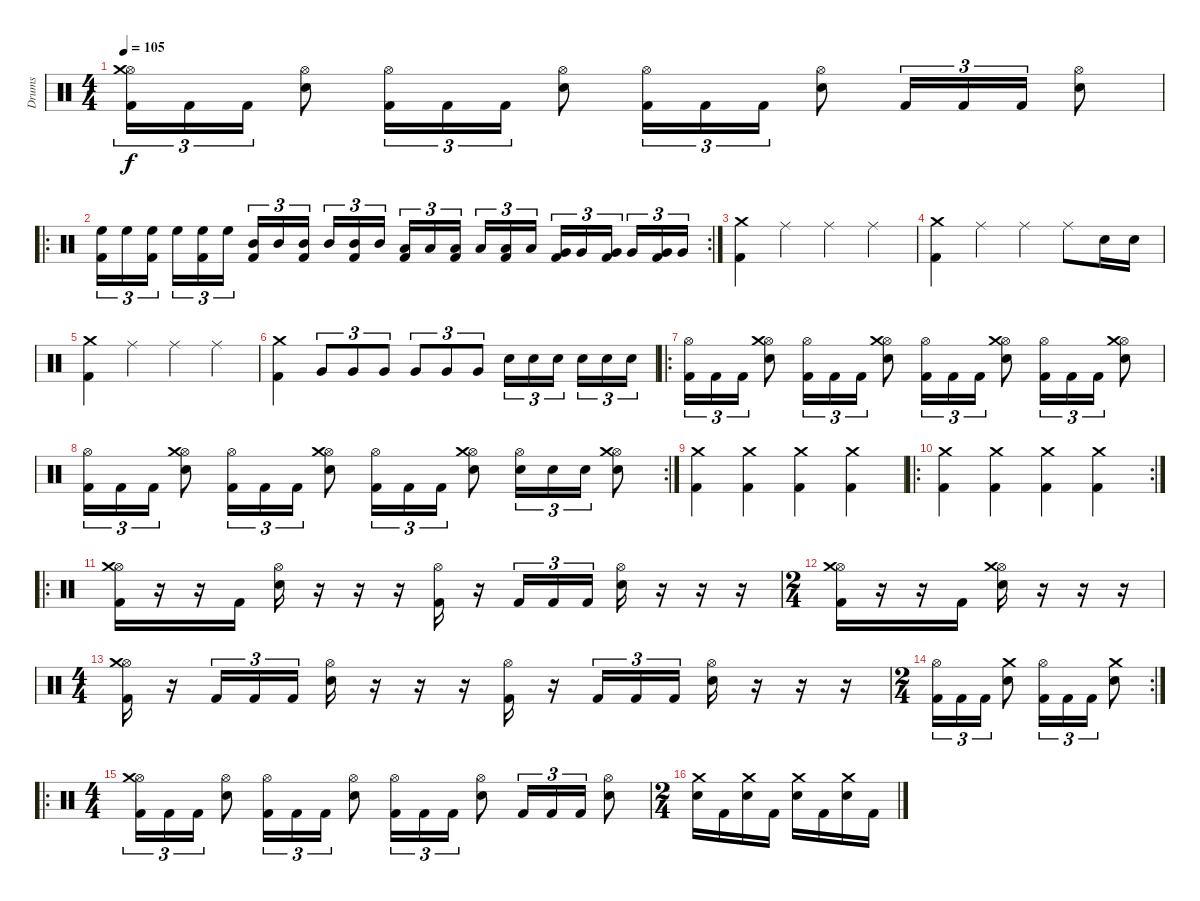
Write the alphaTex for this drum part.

\track ("Drums" "Drums") {instrument percussion}
\staff {score}
\articulation defaults
\ts (4 4)
\tempo 105
\clef neutral
\ks c
("Kick (hit) 2" "Hi-Hat (open)" "Crash medium (hit)").16{tu (3 2) dy f} "Kick (hit) 2".16{tu (3 2)} "Kick (hit) 2".16{tu (3 2)} ("Snare (hit) 2" "Hi-Hat (open)").8 ("Kick (hit) 2" "Hi-Hat (open)").16{tu (3 2)} "Kick (hit) 2".16{tu (3 2)} "Kick (hit) 2".16{tu (3 2)} ("Snare (hit) 2" "Hi-Hat (open)").8 ("Kick (hit) 2" "Hi-Hat (open)").16{tu (3 2)} "Kick (hit) 2".16{tu (3 2)} "Kick (hit) 2".16{tu (3 2)} ("Snare (hit) 2" "Hi-Hat (open)").8 "Kick (hit) 2".16{tu (3 2)} "Kick (hit) 2".16{tu (3 2)} "Kick (hit) 2".16{tu (3 2)} ("Snare (hit) 2" "Hi-Hat (open)").8 |
\ro
\rc 2
("High Floor Tom (hit)" "Kick (hit) 2").16{tu (3 2)} "High Floor Tom (hit)".16{tu (3 2)} ("High Floor Tom (hit)" "Kick (hit) 2").16{tu (3 2)} "High Floor Tom (hit)".16{tu (3 2)} ("High Floor Tom (hit)" "Kick (hit) 2").16{tu (3 2)} "High Floor Tom (hit)".16{tu (3 2)} ("Mid Tom (hit)" "Kick (hit) 2").16{tu (3 2)} "Mid Tom (hit)".16{tu (3 2)} ("Mid Tom (hit)" "Kick (hit) 2").16{tu (3 2)} "Mid Tom (hit)".16{tu (3 2)} ("Mid Tom (hit)" "Kick (hit) 2").16{tu (3 2)} "Mid Tom (hit)".16{tu (3 2)} ("Low Tom (hit)" "Kick (hit) 2").16{tu (3 2)} "Low Tom (hit)".16{tu (3 2)} ("Low Tom (hit)" "Kick (hit) 2").16{tu (3 2)} "Low Tom (hit)".16{tu (3 2)} ("Low Tom (hit)" "Kick (hit) 2").16{tu (3 2)} "Low Tom (hit)".16{tu (3 2)} ("Very Low Tom (hit)" "Kick (hit) 2").16{tu (3 2)} "Very Low Tom (hit)".16{tu (3 2)} ("Very Low Tom (hit)" "Kick (hit) 2").16{tu (3 2)} "Very Low Tom (hit)".16{tu (3 2)} ("Very Low Tom (hit)" "Kick (hit) 2").16{tu (3 2)} "Very Low Tom (hit)".16{tu (3 2)} |
("Kick (hit) 2" "Crash medium (hit)").4 "Ride (middle)".4 "Ride (middle)".4 "Ride (middle)".4 |
("Kick (hit) 2" "Crash medium (hit)").4 "Ride (middle)".4 "Ride (middle)".4 "Ride (middle)".8 "Snare (hit) 2".16 "Snare (hit) 2".16 |
("Kick (hit) 2" "Crash medium (hit)").4 "Ride (middle)".4 "Ride (middle)".4 "Ride (middle)".4 |
("Kick (hit) 2" "Crash medium (hit)").4 "Very Low Tom (hit)".8{tu (3 2)} "Very Low Tom (hit)".8{tu (3 2)} "Very Low Tom (hit)".8{tu (3 2)} "Very Low Tom (hit)".8{tu (3 2)} "Very Low Tom (hit)".8{tu (3 2)} "Very Low Tom (hit)".8{tu (3 2)} "Snare (hit) 2".16{tu (3 2)} "Snare (hit) 2".16{tu (3 2)} "Snare (hit) 2".16{tu (3 2)} "Snare (hit) 2".16{tu (3 2)} "Snare (hit) 2".16{tu (3 2)} "Snare (hit) 2".16{tu (3 2)} |
\ro
("Kick (hit) 2" "Hi-Hat (open)").16{tu (3 2)} "Kick (hit) 2".16{tu (3 2)} "Kick (hit) 2".16{tu (3 2)} ("Snare (hit) 2" "Hi-Hat (open)" "Crash medium (hit)").8 ("Kick (hit) 2" "Hi-Hat (open)").16{tu (3 2)} "Kick (hit) 2".16{tu (3 2)} "Kick (hit) 2".16{tu (3 2)} ("Snare (hit) 2" "Hi-Hat (open)" "Crash medium (hit)").8 ("Kick (hit) 2" "Hi-Hat (open)").16{tu (3 2)} "Kick (hit) 2".16{tu (3 2)} "Kick (hit) 2".16{tu (3 2)} ("Snare (hit) 2" "Hi-Hat (open)" "Crash medium (hit)").8 ("Kick (hit) 2" "Hi-Hat (open)").16{tu (3 2)} "Kick (hit) 2".16{tu (3 2)} "Kick (hit) 2".16{tu (3 2)} ("Snare (hit) 2" "Hi-Hat (open)" "Crash medium (hit)").8 |
\rc 2
("Kick (hit) 2" "Hi-Hat (open)").16{tu (3 2)} "Kick (hit) 2".16{tu (3 2)} "Kick (hit) 2".16{tu (3 2)} ("Snare (hit) 2" "Hi-Hat (open)" "Crash medium (hit)").8 ("Kick (hit) 2" "Hi-Hat (open)").16{tu (3 2)} "Kick (hit) 2".16{tu (3 2)} "Kick (hit) 2".16{tu (3 2)} ("Snare (hit) 2" "Hi-Hat (open)" "Crash medium (hit)").8 ("Kick (hit) 2" "Hi-Hat (open)").16{tu (3 2)} "Kick (hit) 2".16{tu (3 2)} "Kick (hit) 2".16{tu (3 2)} ("Snare (hit) 2" "Hi-Hat (open)" "Crash medium (hit)").8 ("Snare (hit) 2" "Hi-Hat (open)").16{tu (3 2)} "Snare (hit) 2".16{tu (3 2)} "Snare (hit) 2".16{tu (3 2)} ("Snare (hit) 2" "Hi-Hat (open)" "Crash medium (hit)").8 |
("Kick (hit) 2" "Crash medium (hit)").4 ("Kick (hit) 2" "Crash medium (hit)").4 ("Kick (hit) 2" "Crash medium (hit)").4 ("Kick (hit) 2" "Crash medium (hit)").4 |
\ro
\rc 2
("Kick (hit) 2" "Crash medium (hit)").4 ("Kick (hit) 2" "Crash medium (hit)").4 ("Kick (hit) 2" "Crash medium (hit)").4 ("Kick (hit) 2" "Crash medium (hit)").4 |
\ro
("Hi-Hat (open)" "Kick (hit) 2" "Crash medium (hit)").16 r.16 r.16 "Kick (hit) 2".16 ("Hi-Hat (open)" "Snare (hit) 2").16 r.16 r.16 r.16 ("Hi-Hat (open)" "Kick (hit) 2").16 r.16 "Kick (hit) 2".16{tu (3 2)} "Kick (hit) 2".16{tu (3 2)} "Kick (hit) 2".16{tu (3 2)} ("Hi-Hat (open)" "Snare (hit) 2").16 r.16 r.16 r.16 |
\ts (2 4)
("Hi-Hat (open)" "Kick (hit) 2" "Crash medium (hit)").16 r.16 r.16 "Kick (hit) 2".16 ("Hi-Hat (open)" "Snare (hit) 2" "Crash medium (hit)").16 r.16 r.16 r.16 |
\ts (4 4)
("Hi-Hat (open)" "Kick (hit) 2" "Crash medium (hit)").16 r.16 "Kick (hit) 2".16{tu (3 2)} "Kick (hit) 2".16{tu (3 2)} "Kick (hit) 2".16{tu (3 2)} ("Hi-Hat (open)" "Snare (hit) 2").16 r.16 r.16 r.16 ("Hi-Hat (open)" "Kick (hit) 2").16 r.16 "Kick (hit) 2".16{tu (3 2)} "Kick (hit) 2".16{tu (3 2)} "Kick (hit) 2".16{tu (3 2)} ("Hi-Hat (open)" "Snare (hit) 2").16 r.16 r.16 r.16 |
\rc 2
\ts (2 4)
("Hi-Hat (open)" "Kick (hit) 2").16{tu (3 2)} "Kick (hit) 2".16{tu (3 2)} "Kick (hit) 2".16{tu (3 2)} ("Snare (hit) 2" "Crash medium (hit)").8 ("Hi-Hat (open)" "Kick (hit) 2").16{tu (3 2)} "Kick (hit) 2".16{tu (3 2)} "Kick (hit) 2".16{tu (3 2)} ("Crash medium (hit)" "Snare (hit) 2").8 |
\ro
\ts (4 4)
("Kick (hit) 2" "Hi-Hat (open)" "Crash medium (hit)").16{tu (3 2)} "Kick (hit) 2".16{tu (3 2)} "Kick (hit) 2".16{tu (3 2)} ("Snare (hit) 2" "Hi-Hat (open)").8 ("Kick (hit) 2" "Hi-Hat (open)").16{tu (3 2)} "Kick (hit) 2".16{tu (3 2)} "Kick (hit) 2".16{tu (3 2)} ("Snare (hit) 2" "Hi-Hat (open)").8 ("Kick (hit) 2" "Hi-Hat (open)").16{tu (3 2)} "Kick (hit) 2".16{tu (3 2)} "Kick (hit) 2".16{tu (3 2)} ("Snare (hit) 2" "Hi-Hat (open)").8 "Kick (hit) 2".16{tu (3 2)} "Kick (hit) 2".16{tu (3 2)} "Kick (hit) 2".16{tu (3 2)} ("Snare (hit) 2" "Hi-Hat (open)").8 |
\ts (2 4)
("Snare (hit) 2" "Crash medium (hit)").16 "Kick (hit) 2".16 ("Snare (hit) 2" "Crash medium (hit)").16 "Kick (hit) 2".16 ("Snare (hit) 2" "Crash medium (hit)").16 "Kick (hit) 2".16 ("Snare (hit) 2" "Crash medium (hit)").16 "Kick (hit) 2".16
